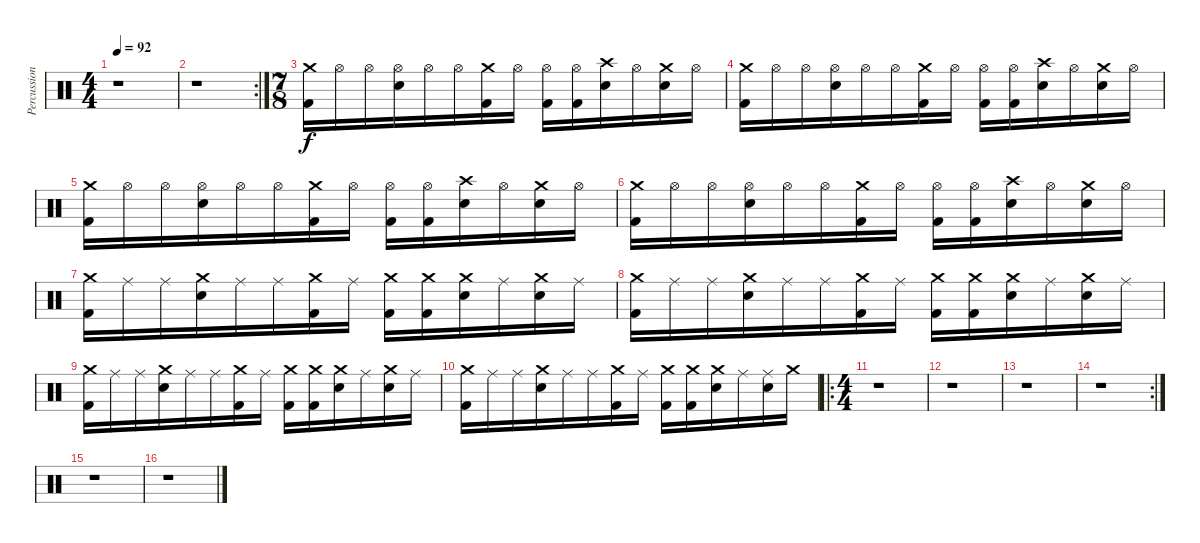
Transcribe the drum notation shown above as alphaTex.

\track ("Percussion" "Percussion") {instrument percussion}
\staff {score}
\articulation defaults
\ts (4 4)
\tempo 92
\clef neutral
\ks c
r.1{dy f} |
\rc 2
r.1 |
\ts (7 8)
("Crash medium (hit)" "Kick (hit) 2").16 "Hi-Hat (open)".16 "Hi-Hat (open)".16 ("Hi-Hat (open)" "Electric Snare (hit)").16 "Hi-Hat (open)".16 "Hi-Hat (open)".16 ("Crash medium (hit)" "Kick (hit) 2").16 "Hi-Hat (open)".16 ("Hi-Hat (open)" "Kick (hit) 2").16 ("Hi-Hat (open)" "Kick (hit) 2").16 ("Crash high (hit)" "Electric Snare (hit)").16 "Hi-Hat (open)".16 ("Crash medium (hit)" "Electric Snare (hit)").16 "Hi-Hat (open)".16 |
("Crash medium (hit)" "Kick (hit) 2").16 "Hi-Hat (open)".16 "Hi-Hat (open)".16 ("Hi-Hat (open)" "Electric Snare (hit)").16 "Hi-Hat (open)".16 "Hi-Hat (open)".16 ("Crash medium (hit)" "Kick (hit) 2").16 "Hi-Hat (open)".16 ("Hi-Hat (open)" "Kick (hit) 2").16 ("Hi-Hat (open)" "Kick (hit) 2").16 ("Crash high (hit)" "Electric Snare (hit)").16 "Hi-Hat (open)".16 ("Crash medium (hit)" "Electric Snare (hit)").16 "Hi-Hat (open)".16 |
("Crash medium (hit)" "Kick (hit) 2").16 "Hi-Hat (open)".16 "Hi-Hat (open)".16 ("Hi-Hat (open)" "Electric Snare (hit)").16 "Hi-Hat (open)".16 "Hi-Hat (open)".16 ("Crash medium (hit)" "Kick (hit) 2").16 "Hi-Hat (open)".16 ("Hi-Hat (open)" "Kick (hit) 2").16 ("Hi-Hat (open)" "Kick (hit) 2").16 ("Crash high (hit)" "Electric Snare (hit)").16 "Hi-Hat (open)".16 ("Crash medium (hit)" "Electric Snare (hit)").16 "Hi-Hat (open)".16 |
("Crash medium (hit)" "Kick (hit) 2").16 "Hi-Hat (open)".16 "Hi-Hat (open)".16 ("Hi-Hat (open)" "Electric Snare (hit)").16 "Hi-Hat (open)".16 "Hi-Hat (open)".16 ("Crash medium (hit)" "Kick (hit) 2").16 "Hi-Hat (open)".16 ("Hi-Hat (open)" "Kick (hit) 2").16 ("Hi-Hat (open)" "Kick (hit) 2").16 ("Crash high (hit)" "Electric Snare (hit)").16 "Hi-Hat (open)".16 ("Crash medium (hit)" "Electric Snare (hit)").16 "Hi-Hat (open)".16 |
("Crash medium (hit)" "Kick (hit) 2").16 "Ride (middle)".16 "Ride (middle)".16 ("Crash medium (hit)" "Electric Snare (hit)").16 "Ride (middle)".16 "Ride (middle)".16 ("Crash medium (hit)" "Kick (hit) 2").16 "Ride (middle)".16 ("Crash medium (hit)" "Kick (hit) 2").16 ("Crash medium (hit)" "Kick (hit) 2").16 ("Crash medium (hit)" "Electric Snare (hit)").16 "Ride (middle)".16 ("Crash medium (hit)" "Electric Snare (hit)").16 "Ride (middle)".16 |
("Crash medium (hit)" "Kick (hit) 2").16 "Ride (middle)".16 "Ride (middle)".16 ("Crash medium (hit)" "Electric Snare (hit)").16 "Ride (middle)".16 "Ride (middle)".16 ("Crash medium (hit)" "Kick (hit) 2").16 "Ride (middle)".16 ("Crash medium (hit)" "Kick (hit) 2").16 ("Crash medium (hit)" "Kick (hit) 2").16 ("Crash medium (hit)" "Electric Snare (hit)").16 "Ride (middle)".16 ("Crash medium (hit)" "Electric Snare (hit)").16 "Ride (middle)".16 |
("Crash medium (hit)" "Kick (hit) 2").16 "Ride (middle)".16 "Ride (middle)".16 ("Crash medium (hit)" "Electric Snare (hit)").16 "Ride (middle)".16 "Ride (middle)".16 ("Crash medium (hit)" "Kick (hit) 2").16 "Ride (middle)".16 ("Crash medium (hit)" "Kick (hit) 2").16 ("Crash medium (hit)" "Kick (hit) 2").16 ("Crash medium (hit)" "Electric Snare (hit)").16 "Ride (middle)".16 ("Crash medium (hit)" "Electric Snare (hit)").16 "Ride (middle)".16 |
("Crash medium (hit)" "Kick (hit) 2").16 "Ride (middle)".16 "Ride (middle)".16 ("Crash medium (hit)" "Electric Snare (hit)").16 "Ride (middle)".16 "Ride (middle)".16 ("Crash medium (hit)" "Kick (hit) 2").16 "Ride (middle)".16 ("Crash medium (hit)" "Kick (hit) 2").16 ("Crash medium (hit)" "Kick (hit) 2").16 ("Crash medium (hit)" "Electric Snare (hit)").16 "Ride (middle)".16 ("Ride (middle)" "Electric Snare (hit)").16 "Crash medium (hit)".16 |
\ro
\ts (4 4)
r.1 |
r.1 |
r.1 |
\rc 2
r.1 |
r.1 |
r.1
